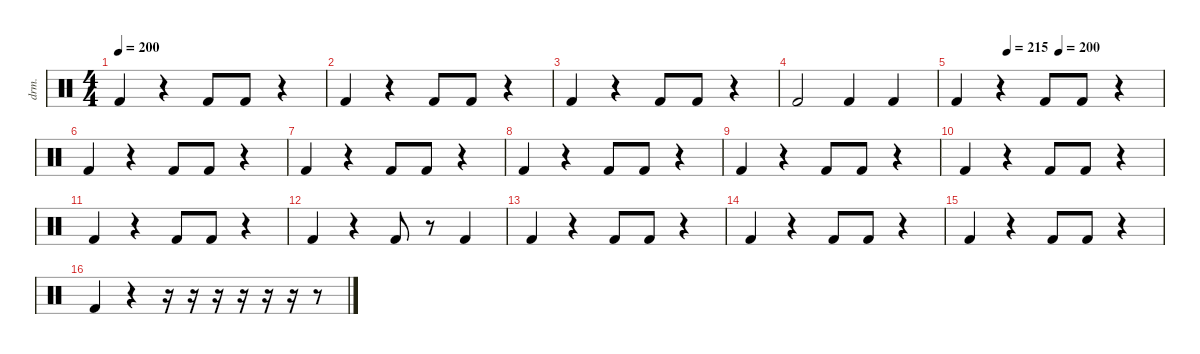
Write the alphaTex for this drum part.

\defaultSystemsLayout 4
\hideDynamics
\bracketExtendMode nobrackets
\track ("Percussion" "drm.") {instrument percussion}
\staff {score}
\articulation defaults
\ts (4 4)
\tempo 200
\clef neutral
\ks c "Kick (hit) 2".4{dy ff}
r.4 "Kick (hit) 2".8 "Kick (hit) 2".8 r.4 |
"Kick (hit) 2".4 r.4 "Kick (hit) 2".8 "Kick (hit) 2".8 r.4 |
"Kick (hit) 2".4 r.4 "Kick (hit) 2".8 "Kick (hit) 2".8 r.4 |
"Kick (hit) 2".2 "Kick (hit) 2".4 "Kick (hit) 2".4 |
\tempo (215 0.25)
\tempo (200 0.5)
"Kick (hit) 2".4 r.4 "Kick (hit) 2".8 "Kick (hit) 2".8 r.4 |
"Kick (hit) 2".4 r.4 "Kick (hit) 2".8 "Kick (hit) 2".8 r.4 |
"Kick (hit) 2".4 r.4 "Kick (hit) 2".8 "Kick (hit) 2".8 r.4 |
"Kick (hit) 2".4 r.4 "Kick (hit) 2".8 "Kick (hit) 2".8 r.4 |
"Kick (hit) 2".4 r.4 "Kick (hit) 2".8 "Kick (hit) 2".8 r.4 |
"Kick (hit) 2".4 r.4 "Kick (hit) 2".8 "Kick (hit) 2".8 r.4 |
"Kick (hit) 2".4 r.4 "Kick (hit) 2".8 "Kick (hit) 2".8 r.4 |
"Kick (hit) 2".4 r.4 "Kick (hit) 2".8 r.8 "Kick (hit) 2".4 |
"Kick (hit) 2".4 r.4 "Kick (hit) 2".8 "Kick (hit) 2".8 r.4 |
"Kick (hit) 2".4 r.4 "Kick (hit) 2".8 "Kick (hit) 2".8 r.4 |
"Kick (hit) 2".4 r.4 "Kick (hit) 2".8 "Kick (hit) 2".8 r.4 |
"Kick (hit) 2".4 r.4 r.16 r.16 r.16 r.16 r.16 r.16 r.8
